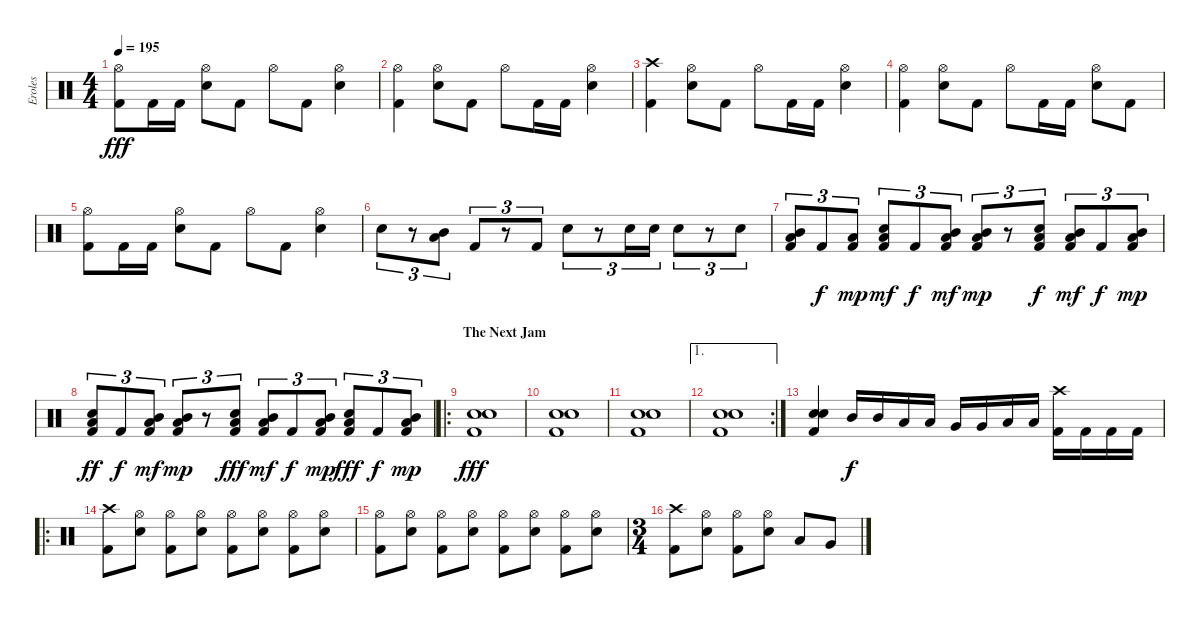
\track ("Eroles" "Eroles") {instrument percussion}
\staff {score}
\articulation defaults
\ts (4 4)
\tempo 195
\clef neutral
\ks c
("Hi-Hat (open)" "Kick (hit) 2").8{dy fff} "Kick (hit) 2".16 "Kick (hit) 2".16 ("Hi-Hat (open)" "Snare (hit) 2").8 "Kick (hit) 2".8 "Hi-Hat (open)".8 "Kick (hit) 2".8 ("Hi-Hat (open)" "Snare (hit) 2").4 |
("Hi-Hat (open)" "Kick (hit) 2").4 ("Hi-Hat (open)" "Snare (hit) 2").8 "Kick (hit) 2".8 "Hi-Hat (open)".8 "Kick (hit) 2".16 "Kick (hit) 2".16 ("Hi-Hat (open)" "Snare (hit) 2").4 |
("Crash high (hit)" "Kick (hit) 2").4 ("Hi-Hat (open)" "Snare (hit) 2").8 "Kick (hit) 2".8 "Hi-Hat (open)".8 "Kick (hit) 2".16 "Kick (hit) 2".16 ("Hi-Hat (open)" "Snare (hit) 2").4 |
("Hi-Hat (open)" "Kick (hit) 2").4 ("Hi-Hat (open)" "Snare (hit) 2").8 "Kick (hit) 2".8 "Hi-Hat (open)".8 "Kick (hit) 2".16 "Kick (hit) 2".16 ("Hi-Hat (open)" "Snare (hit) 2").8 "Kick (hit) 2".8 |
("Hi-Hat (open)" "Kick (hit) 2").8 "Kick (hit) 2".16 "Kick (hit) 2".16 ("Hi-Hat (open)" "Snare (hit) 2").8 "Kick (hit) 2".8 "Hi-Hat (open)".8 "Kick (hit) 2".8 ("Hi-Hat (open)" "Snare (hit) 2").4 |
"Snare (hit) 2".8{tu (3 2)} r.8{tu (3 2)} ("Mid Tom (hit)" "Low Tom (hit)").8{tu (3 2)} "Kick (hit) 2".8{tu (3 2)} r.8{tu (3 2)} "Kick (hit) 2".8{tu (3 2)} "Snare (hit) 2".8{tu (3 2)} r.8{tu (3 2)} "Snare (hit) 2".16{tu (3 2)} "Snare (hit) 2".16{tu (3 2)} "Snare (hit) 2".8{tu (3 2)} r.8{tu (3 2)} "Snare (hit) 2".8{tu (3 2)} |
("Mid Tom (hit)" "Low Tom (hit)" "Kick (hit) 2").8{tu (3 2)} "Kick (hit) 2".8{tu (3 2) dy f} ("Low Tom (hit)" "Kick (hit) 2").8{tu (3 2) dy mp} ("Snare (hit) 2" "Low Tom (hit)" "Kick (hit) 2").8{tu (3 2) bd 120 dy mf} "Kick (hit) 2".8{tu (3 2) dy f} ("Mid Tom (hit)" "Low Tom (hit)" "Kick (hit) 2").8{tu (3 2) dy mf} ("Mid Tom (hit)" "Low Tom (hit)" "Kick (hit) 2").8{tu (3 2) dy mp} r.8{tu (3 2)} ("Snare (hit) 2" "Low Tom (hit)" "Kick (hit) 2").8{tu (3 2) bd 120 dy f} ("Mid Tom (hit)" "Low Tom (hit)" "Kick (hit) 2").8{tu (3 2) dy mf} "Kick (hit) 2".8{tu (3 2) dy f} ("Mid Tom (hit)" "Low Tom (hit)" "Kick (hit) 2").8{tu (3 2) dy mp} |
("Snare (hit) 2" "Low Tom (hit)" "Kick (hit) 2").8{tu (3 2) bd 120 dy ff} "Kick (hit) 2".8{tu (3 2) dy f} ("Mid Tom (hit)" "Low Tom (hit)" "Kick (hit) 2").8{tu (3 2) dy mf} ("Mid Tom (hit)" "Low Tom (hit)" "Kick (hit) 2").8{tu (3 2) dy mp} r.8{tu (3 2)} ("Snare (hit) 2" "Low Tom (hit)" "Kick (hit) 2").8{tu (3 2) bd 120 dy fff} ("Mid Tom (hit)" "Low Tom (hit)" "Kick (hit) 2").8{tu (3 2) dy mf} "Kick (hit) 2".8{tu (3 2) dy f} ("Mid Tom (hit)" "Low Tom (hit)" "Kick (hit) 2").8{tu (3 2) dy mp} ("Snare (hit) 2" "Low Tom (hit)" "Kick (hit) 2").8{tu (3 2) bd 120 dy fff} "Kick (hit) 2".8{tu (3 2) dy f} ("Mid Tom (hit)" "Low Tom (hit)" "Kick (hit) 2").8{tu (3 2) dy mp} |
\ro
\section ("" "The Next Jam")
("Snare (hit) 2" "Snare (hit) 2" "Kick (hit) 2").1{bd 120 dy fff} |
("Snare (hit) 2" "Snare (hit) 2" "Kick (hit) 2").1{bd 120} |
("Snare (hit) 2" "Snare (hit) 2" "Kick (hit) 2").1{bd 120} |
\ae 1
\rc 2
("Snare (hit) 2" "Snare (hit) 2" "Kick (hit) 2").1{bd 120} |
("Snare (hit) 2" "Snare (hit) 2" "Kick (hit) 2").4{bd 120} "Mid Tom (hit)".16{dy f} "Mid Tom (hit)".16 "Low Tom (hit)".16 "Low Tom (hit)".16 "Very Low Tom (hit)".16 "Very Low Tom (hit)".16 "Low Floor Tom (hit)".16 "Low Floor Tom (hit)".16 ("Crash high (hit)" "Kick (hit) 2").16 "Kick (hit) 2".16 "Kick (hit) 2".16 "Kick (hit) 2".16 |
\ro
("Crash high (hit)" "Kick (hit) 2").8 ("Hi-Hat (open)" "Snare (hit) 2").8 ("Hi-Hat (open)" "Kick (hit) 2").8 ("Hi-Hat (open)" "Snare (hit) 2").8 ("Hi-Hat (open)" "Kick (hit) 2").8 ("Hi-Hat (open)" "Snare (hit) 2").8 ("Hi-Hat (open)" "Kick (hit) 2").8 ("Hi-Hat (open)" "Snare (hit) 2").8 |
("Hi-Hat (open)" "Kick (hit) 2").8 ("Hi-Hat (open)" "Snare (hit) 2").8 ("Hi-Hat (open)" "Kick (hit) 2").8 ("Hi-Hat (open)" "Snare (hit) 2").8 ("Hi-Hat (open)" "Kick (hit) 2").8 ("Hi-Hat (open)" "Snare (hit) 2").8 ("Hi-Hat (open)" "Kick (hit) 2").8 ("Hi-Hat (open)" "Snare (hit) 2").8 |
\ts (3 4)
("Crash high (hit)" "Kick (hit) 2").8 ("Hi-Hat (open)" "Snare (hit) 2").8 ("Hi-Hat (open)" "Kick (hit) 2").8 ("Hi-Hat (open)" "Snare (hit) 2").8 "Low Tom (hit)".8 "Very Low Tom (hit)".8
